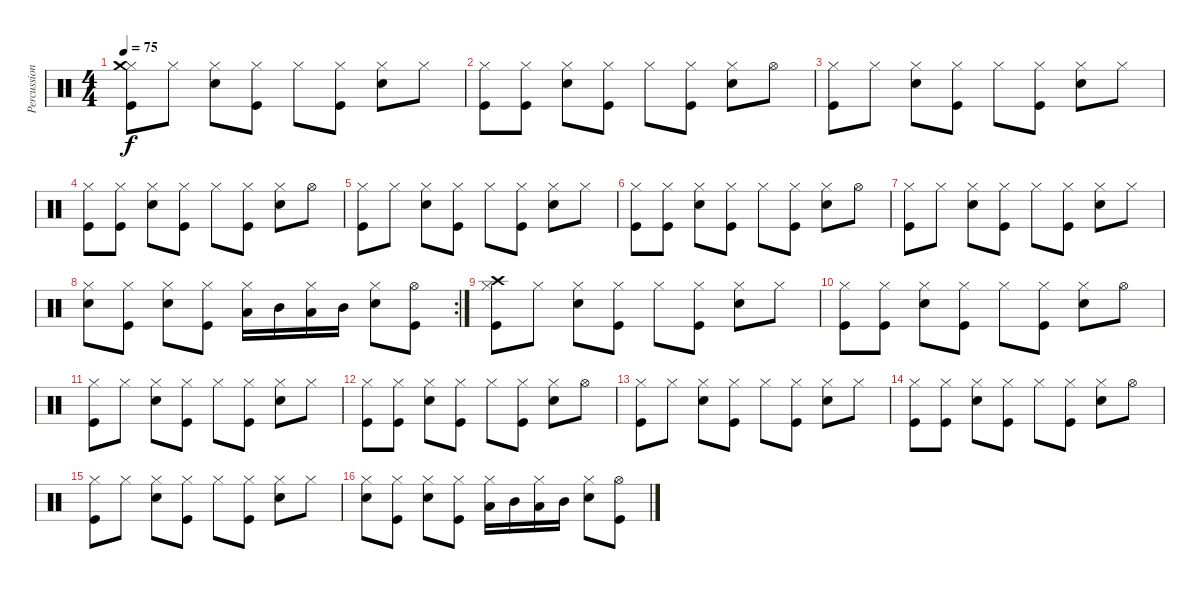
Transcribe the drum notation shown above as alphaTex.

\track ("Percussion" "Percussion") {instrument percussion}
\staff {score}
\articulation defaults
\ts (4 4)
\tempo 75
\clef neutral
\ks c
("Hi-Hat (closed)" "Kick (hit)" "Crash medium (hit)").8{dy f} "Hi-Hat (closed)".8 ("Hi-Hat (closed)" "Electric Snare (hit)").8 ("Hi-Hat (closed)" "Kick (hit)").8 "Hi-Hat (closed)".8 ("Hi-Hat (closed)" "Kick (hit)").8 ("Hi-Hat (closed)" "Electric Snare (hit)").8 "Hi-Hat (closed)".8 |
("Hi-Hat (closed)" "Kick (hit)").8 ("Hi-Hat (closed)" "Kick (hit)").8 ("Hi-Hat (closed)" "Electric Snare (hit)").8 ("Hi-Hat (closed)" "Kick (hit)").8 "Hi-Hat (closed)".8 ("Hi-Hat (closed)" "Kick (hit)").8 ("Hi-Hat (closed)" "Electric Snare (hit)").8 "Hi-Hat (open)".8 |
("Hi-Hat (closed)" "Kick (hit)").8 "Hi-Hat (closed)".8 ("Hi-Hat (closed)" "Electric Snare (hit)").8 ("Hi-Hat (closed)" "Kick (hit)").8 "Hi-Hat (closed)".8 ("Hi-Hat (closed)" "Kick (hit)").8 ("Hi-Hat (closed)" "Electric Snare (hit)").8 "Hi-Hat (closed)".8 |
("Hi-Hat (closed)" "Kick (hit)").8 ("Hi-Hat (closed)" "Kick (hit)").8 ("Hi-Hat (closed)" "Electric Snare (hit)").8 ("Hi-Hat (closed)" "Kick (hit)").8 "Hi-Hat (closed)".8 ("Hi-Hat (closed)" "Kick (hit)").8 ("Hi-Hat (closed)" "Electric Snare (hit)").8 "Hi-Hat (open)".8 |
("Hi-Hat (closed)" "Kick (hit)").8 "Hi-Hat (closed)".8 ("Hi-Hat (closed)" "Electric Snare (hit)").8 ("Hi-Hat (closed)" "Kick (hit)").8 "Hi-Hat (closed)".8 ("Hi-Hat (closed)" "Kick (hit)").8 ("Hi-Hat (closed)" "Electric Snare (hit)").8 "Hi-Hat (closed)".8 |
("Hi-Hat (closed)" "Kick (hit)").8 ("Hi-Hat (closed)" "Kick (hit)").8 ("Hi-Hat (closed)" "Electric Snare (hit)").8 ("Hi-Hat (closed)" "Kick (hit)").8 "Hi-Hat (closed)".8 ("Hi-Hat (closed)" "Kick (hit)").8 ("Hi-Hat (closed)" "Electric Snare (hit)").8 "Hi-Hat (open)".8 |
("Hi-Hat (closed)" "Kick (hit)").8 "Hi-Hat (closed)".8 ("Hi-Hat (closed)" "Electric Snare (hit)").8 ("Hi-Hat (closed)" "Kick (hit)").8 "Hi-Hat (closed)".8 ("Hi-Hat (closed)" "Kick (hit)").8 ("Hi-Hat (closed)" "Electric Snare (hit)").8 "Hi-Hat (closed)".8 |
\rc 2
("Hi-Hat (closed)" "Electric Snare (hit)").8 ("Hi-Hat (closed)" "Kick (hit)").8 ("Hi-Hat (closed)" "Electric Snare (hit)").8 ("Hi-Hat (closed)" "Kick (hit)").8 ("Hi-Hat (closed)" "Low Tom (hit)").16 "Mid Tom (hit)".16 ("Hi-Hat (closed)" "Low Tom (hit)").16 "Mid Tom (hit)".16 ("Hi-Hat (closed)" "Electric Snare (hit)").8 ("Hi-Hat (open)" "Kick (hit)").8 |
("Hi-Hat (closed)" "Kick (hit)" "Crash high (hit)").8 "Hi-Hat (closed)".8 ("Hi-Hat (closed)" "Electric Snare (hit)").8 ("Hi-Hat (closed)" "Kick (hit)").8 "Hi-Hat (closed)".8 ("Hi-Hat (closed)" "Kick (hit)").8 ("Hi-Hat (closed)" "Electric Snare (hit)").8 "Hi-Hat (closed)".8 |
("Hi-Hat (closed)" "Kick (hit)").8 ("Hi-Hat (closed)" "Kick (hit)").8 ("Hi-Hat (closed)" "Electric Snare (hit)").8 ("Hi-Hat (closed)" "Kick (hit)").8 "Hi-Hat (closed)".8 ("Hi-Hat (closed)" "Kick (hit)").8 ("Hi-Hat (closed)" "Electric Snare (hit)").8 "Hi-Hat (open)".8 |
("Hi-Hat (closed)" "Kick (hit)").8 "Hi-Hat (closed)".8 ("Hi-Hat (closed)" "Electric Snare (hit)").8 ("Hi-Hat (closed)" "Kick (hit)").8 "Hi-Hat (closed)".8 ("Hi-Hat (closed)" "Kick (hit)").8 ("Hi-Hat (closed)" "Electric Snare (hit)").8 "Hi-Hat (closed)".8 |
("Hi-Hat (closed)" "Kick (hit)").8 ("Hi-Hat (closed)" "Kick (hit)").8 ("Hi-Hat (closed)" "Electric Snare (hit)").8 ("Hi-Hat (closed)" "Kick (hit)").8 "Hi-Hat (closed)".8 ("Hi-Hat (closed)" "Kick (hit)").8 ("Hi-Hat (closed)" "Electric Snare (hit)").8 "Hi-Hat (open)".8 |
("Hi-Hat (closed)" "Kick (hit)").8 "Hi-Hat (closed)".8 ("Hi-Hat (closed)" "Electric Snare (hit)").8 ("Hi-Hat (closed)" "Kick (hit)").8 "Hi-Hat (closed)".8 ("Hi-Hat (closed)" "Kick (hit)").8 ("Hi-Hat (closed)" "Electric Snare (hit)").8 "Hi-Hat (closed)".8 |
("Hi-Hat (closed)" "Kick (hit)").8 ("Hi-Hat (closed)" "Kick (hit)").8 ("Hi-Hat (closed)" "Electric Snare (hit)").8 ("Hi-Hat (closed)" "Kick (hit)").8 "Hi-Hat (closed)".8 ("Hi-Hat (closed)" "Kick (hit)").8 ("Hi-Hat (closed)" "Electric Snare (hit)").8 "Hi-Hat (open)".8 |
("Hi-Hat (closed)" "Kick (hit)").8 "Hi-Hat (closed)".8 ("Hi-Hat (closed)" "Electric Snare (hit)").8 ("Hi-Hat (closed)" "Kick (hit)").8 "Hi-Hat (closed)".8 ("Hi-Hat (closed)" "Kick (hit)").8 ("Hi-Hat (closed)" "Electric Snare (hit)").8 "Hi-Hat (closed)".8 |
("Hi-Hat (closed)" "Electric Snare (hit)").8 ("Hi-Hat (closed)" "Kick (hit)").8 ("Hi-Hat (closed)" "Electric Snare (hit)").8 ("Hi-Hat (closed)" "Kick (hit)").8 ("Hi-Hat (closed)" "Low Tom (hit)").16 "Mid Tom (hit)".16 ("Hi-Hat (closed)" "Low Tom (hit)").16 "Mid Tom (hit)".16 ("Hi-Hat (closed)" "Electric Snare (hit)").8 ("Hi-Hat (open)" "Kick (hit)").8
